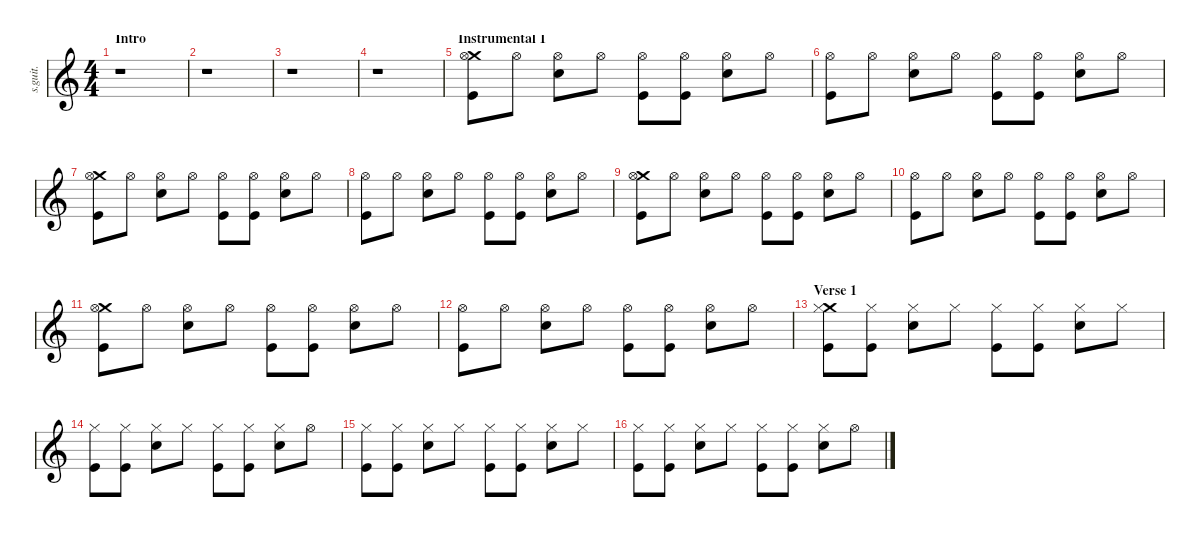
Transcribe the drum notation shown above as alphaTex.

\defaultSystemsLayout 4
\hideDynamics
\bracketExtendMode nobrackets
\track ("Will Champion" "s.guit.") {instrument percussion}
\staff {score}
\articulation defaults
\ts (4 4)
\beaming (8 2 2 2 2)
\section ("" "Intro")
\tempo (87 hide)
\clef g2
\ks c
r.1{dy mf} |
r.1 |
r.1 |
r.1 |
\section ("" "Instrumental 1")
("Crash medium (hit)" "Kick (hit)" "Hi-Hat (open)").8{lyrics (0 "") lyrics (1 "") lyrics (2 "") lyrics (3 "") lyrics (4 "")} "Hi-Hat (open)".8{lyrics (0 "") lyrics (1 "") lyrics (2 "") lyrics (3 "") lyrics (4 "")} ("Snare (hit) 2" "Hi-Hat (open)").8{lyrics (0 "") lyrics (1 "") lyrics (2 "") lyrics (3 "") lyrics (4 "")} "Hi-Hat (open)".8{lyrics (0 "") lyrics (1 "") lyrics (2 "") lyrics (3 "") lyrics (4 "")} ("Kick (hit)" "Hi-Hat (open)").8{lyrics (0 "") lyrics (1 "") lyrics (2 "") lyrics (3 "") lyrics (4 "")} ("Kick (hit)" "Hi-Hat (open)").8{lyrics (0 "") lyrics (1 "") lyrics (2 "") lyrics (3 "") lyrics (4 "")} ("Snare (hit) 2" "Hi-Hat (open)").8{lyrics (0 "") lyrics (1 "") lyrics (2 "") lyrics (3 "") lyrics (4 "")} "Hi-Hat (open)".8{lyrics (0 "") lyrics (1 "") lyrics (2 "") lyrics (3 "") lyrics (4 "")} |
("Kick (hit)" "Hi-Hat (open)").8{lyrics (0 "") lyrics (1 "") lyrics (2 "") lyrics (3 "") lyrics (4 "")} "Hi-Hat (open)".8{lyrics (0 "") lyrics (1 "") lyrics (2 "") lyrics (3 "") lyrics (4 "")} ("Snare (hit) 2" "Hi-Hat (open)").8{lyrics (0 "") lyrics (1 "") lyrics (2 "") lyrics (3 "") lyrics (4 "")} "Hi-Hat (open)".8{lyrics (0 "") lyrics (1 "") lyrics (2 "") lyrics (3 "") lyrics (4 "")} ("Kick (hit)" "Hi-Hat (open)").8{lyrics (0 "") lyrics (1 "") lyrics (2 "") lyrics (3 "") lyrics (4 "")} ("Kick (hit)" "Hi-Hat (open)").8{lyrics (0 "") lyrics (1 "") lyrics (2 "") lyrics (3 "") lyrics (4 "")} ("Snare (hit) 2" "Hi-Hat (open)").8{lyrics (0 "") lyrics (1 "") lyrics (2 "") lyrics (3 "") lyrics (4 "")} "Hi-Hat (open)".8{lyrics (0 "") lyrics (1 "") lyrics (2 "") lyrics (3 "") lyrics (4 "")} |
("Crash medium (hit)" "Kick (hit)" "Hi-Hat (open)").8{lyrics (0 "") lyrics (1 "") lyrics (2 "") lyrics (3 "") lyrics (4 "")} "Hi-Hat (open)".8{lyrics (0 "") lyrics (1 "") lyrics (2 "") lyrics (3 "") lyrics (4 "")} ("Snare (hit) 2" "Hi-Hat (open)").8{lyrics (0 "") lyrics (1 "") lyrics (2 "") lyrics (3 "") lyrics (4 "")} "Hi-Hat (open)".8{lyrics (0 "") lyrics (1 "") lyrics (2 "") lyrics (3 "") lyrics (4 "")} ("Kick (hit)" "Hi-Hat (open)").8{lyrics (0 "") lyrics (1 "") lyrics (2 "") lyrics (3 "") lyrics (4 "")} ("Kick (hit)" "Hi-Hat (open)").8{lyrics (0 "") lyrics (1 "") lyrics (2 "") lyrics (3 "") lyrics (4 "")} ("Snare (hit) 2" "Hi-Hat (open)").8{lyrics (0 "") lyrics (1 "") lyrics (2 "") lyrics (3 "") lyrics (4 "")} "Hi-Hat (open)".8{lyrics (0 "") lyrics (1 "") lyrics (2 "") lyrics (3 "") lyrics (4 "")} |
("Kick (hit)" "Hi-Hat (open)").8{lyrics (0 "") lyrics (1 "") lyrics (2 "") lyrics (3 "") lyrics (4 "")} "Hi-Hat (open)".8{lyrics (0 "") lyrics (1 "") lyrics (2 "") lyrics (3 "") lyrics (4 "")} ("Snare (hit) 2" "Hi-Hat (open)").8{lyrics (0 "") lyrics (1 "") lyrics (2 "") lyrics (3 "") lyrics (4 "")} "Hi-Hat (open)".8{lyrics (0 "") lyrics (1 "") lyrics (2 "") lyrics (3 "") lyrics (4 "")} ("Kick (hit)" "Hi-Hat (open)").8{lyrics (0 "") lyrics (1 "") lyrics (2 "") lyrics (3 "") lyrics (4 "")} ("Kick (hit)" "Hi-Hat (open)").8{lyrics (0 "") lyrics (1 "") lyrics (2 "") lyrics (3 "") lyrics (4 "")} ("Snare (hit) 2" "Hi-Hat (open)").8{lyrics (0 "") lyrics (1 "") lyrics (2 "") lyrics (3 "") lyrics (4 "")} "Hi-Hat (open)".8{lyrics (0 "") lyrics (1 "") lyrics (2 "") lyrics (3 "") lyrics (4 "")} |
("Crash medium (hit)" "Kick (hit)" "Hi-Hat (open)").8{lyrics (0 "") lyrics (1 "") lyrics (2 "") lyrics (3 "") lyrics (4 "")} "Hi-Hat (open)".8{lyrics (0 "") lyrics (1 "") lyrics (2 "") lyrics (3 "") lyrics (4 "")} ("Snare (hit) 2" "Hi-Hat (open)").8{lyrics (0 "") lyrics (1 "") lyrics (2 "") lyrics (3 "") lyrics (4 "")} "Hi-Hat (open)".8{lyrics (0 "") lyrics (1 "") lyrics (2 "") lyrics (3 "") lyrics (4 "")} ("Kick (hit)" "Hi-Hat (open)").8{lyrics (0 "") lyrics (1 "") lyrics (2 "") lyrics (3 "") lyrics (4 "")} ("Kick (hit)" "Hi-Hat (open)").8{lyrics (0 "") lyrics (1 "") lyrics (2 "") lyrics (3 "") lyrics (4 "")} ("Snare (hit) 2" "Hi-Hat (open)").8{lyrics (0 "") lyrics (1 "") lyrics (2 "") lyrics (3 "") lyrics (4 "")} "Hi-Hat (open)".8{lyrics (0 "") lyrics (1 "") lyrics (2 "") lyrics (3 "") lyrics (4 "")} |
("Kick (hit)" "Hi-Hat (open)").8{lyrics (0 "") lyrics (1 "") lyrics (2 "") lyrics (3 "") lyrics (4 "")} "Hi-Hat (open)".8{lyrics (0 "") lyrics (1 "") lyrics (2 "") lyrics (3 "") lyrics (4 "")} ("Snare (hit) 2" "Hi-Hat (open)").8{lyrics (0 "") lyrics (1 "") lyrics (2 "") lyrics (3 "") lyrics (4 "")} "Hi-Hat (open)".8{lyrics (0 "") lyrics (1 "") lyrics (2 "") lyrics (3 "") lyrics (4 "")} ("Kick (hit)" "Hi-Hat (open)").8{lyrics (0 "") lyrics (1 "") lyrics (2 "") lyrics (3 "") lyrics (4 "")} ("Kick (hit)" "Hi-Hat (open)").8{lyrics (0 "") lyrics (1 "") lyrics (2 "") lyrics (3 "") lyrics (4 "")} ("Snare (hit) 2" "Hi-Hat (open)").8{lyrics (0 "") lyrics (1 "") lyrics (2 "") lyrics (3 "") lyrics (4 "")} "Hi-Hat (open)".8{lyrics (0 "") lyrics (1 "") lyrics (2 "") lyrics (3 "") lyrics (4 "")} |
("Crash medium (hit)" "Kick (hit)" "Hi-Hat (open)").8{lyrics (0 "") lyrics (1 "") lyrics (2 "") lyrics (3 "") lyrics (4 "")} "Hi-Hat (open)".8{lyrics (0 "") lyrics (1 "") lyrics (2 "") lyrics (3 "") lyrics (4 "")} ("Snare (hit) 2" "Hi-Hat (open)").8{lyrics (0 "") lyrics (1 "") lyrics (2 "") lyrics (3 "") lyrics (4 "")} "Hi-Hat (open)".8{lyrics (0 "") lyrics (1 "") lyrics (2 "") lyrics (3 "") lyrics (4 "")} ("Kick (hit)" "Hi-Hat (open)").8{lyrics (0 "") lyrics (1 "") lyrics (2 "") lyrics (3 "") lyrics (4 "")} ("Kick (hit)" "Hi-Hat (open)").8{lyrics (0 "") lyrics (1 "") lyrics (2 "") lyrics (3 "") lyrics (4 "")} ("Snare (hit) 2" "Hi-Hat (open)").8{lyrics (0 "") lyrics (1 "") lyrics (2 "") lyrics (3 "") lyrics (4 "")} "Hi-Hat (open)".8{lyrics (0 "") lyrics (1 "") lyrics (2 "") lyrics (3 "") lyrics (4 "")} |
("Kick (hit)" "Hi-Hat (open)").8{lyrics (0 "") lyrics (1 "") lyrics (2 "") lyrics (3 "") lyrics (4 "")} "Hi-Hat (open)".8{lyrics (0 "") lyrics (1 "") lyrics (2 "") lyrics (3 "") lyrics (4 "")} ("Snare (hit) 2" "Hi-Hat (open)").8{lyrics (0 "") lyrics (1 "") lyrics (2 "") lyrics (3 "") lyrics (4 "")} "Hi-Hat (open)".8{lyrics (0 "") lyrics (1 "") lyrics (2 "") lyrics (3 "") lyrics (4 "")} ("Kick (hit)" "Hi-Hat (open)").8{lyrics (0 "") lyrics (1 "") lyrics (2 "") lyrics (3 "") lyrics (4 "")} ("Kick (hit)" "Hi-Hat (open)").8{lyrics (0 "") lyrics (1 "") lyrics (2 "") lyrics (3 "") lyrics (4 "")} ("Snare (hit) 2" "Hi-Hat (open)").8{lyrics (0 "") lyrics (1 "") lyrics (2 "") lyrics (3 "") lyrics (4 "")} "Hi-Hat (open)".8{lyrics (0 "") lyrics (1 "") lyrics (2 "") lyrics (3 "") lyrics (4 "")} |
\section ("" "Verse 1")
("Crash medium (hit)" "Hi-Hat (closed)" "Kick (hit)").8{lyrics (0 "") lyrics (1 "") lyrics (2 "") lyrics (3 "") lyrics (4 "")} ("Hi-Hat (closed)" "Kick (hit)").8{lyrics (0 "") lyrics (1 "") lyrics (2 "") lyrics (3 "") lyrics (4 "")} ("Hi-Hat (closed)" "Snare (hit) 2").8{lyrics (0 "") lyrics (1 "") lyrics (2 "") lyrics (3 "") lyrics (4 "")} "Hi-Hat (closed)".8{lyrics (0 "") lyrics (1 "") lyrics (2 "") lyrics (3 "") lyrics (4 "")} ("Hi-Hat (closed)" "Kick (hit)").8{lyrics (0 "") lyrics (1 "") lyrics (2 "") lyrics (3 "") lyrics (4 "")} ("Hi-Hat (closed)" "Kick (hit)").8{lyrics (0 "") lyrics (1 "") lyrics (2 "") lyrics (3 "") lyrics (4 "")} ("Hi-Hat (closed)" "Snare (hit) 2").8{lyrics (0 "") lyrics (1 "") lyrics (2 "") lyrics (3 "") lyrics (4 "")} "Hi-Hat (closed)".8{lyrics (0 "") lyrics (1 "") lyrics (2 "") lyrics (3 "") lyrics (4 "")} |
("Kick (hit)" "Hi-Hat (closed)").8{lyrics (0 "") lyrics (1 "") lyrics (2 "") lyrics (3 "") lyrics (4 "")} ("Kick (hit)" "Hi-Hat (closed)").8{lyrics (0 "") lyrics (1 "") lyrics (2 "") lyrics (3 "") lyrics (4 "")} ("Snare (hit) 2" "Hi-Hat (closed)").8{lyrics (0 "") lyrics (1 "") lyrics (2 "") lyrics (3 "") lyrics (4 "")} "Hi-Hat (closed)".8{lyrics (0 "") lyrics (1 "") lyrics (2 "") lyrics (3 "") lyrics (4 "")} ("Kick (hit)" "Hi-Hat (closed)").8{lyrics (0 "") lyrics (1 "") lyrics (2 "") lyrics (3 "") lyrics (4 "")} ("Kick (hit)" "Hi-Hat (closed)").8{lyrics (0 "") lyrics (1 "") lyrics (2 "") lyrics (3 "") lyrics (4 "")} ("Snare (hit) 2" "Hi-Hat (closed)").8{lyrics (0 "") lyrics (1 "") lyrics (2 "") lyrics (3 "") lyrics (4 "")} "Hi-Hat (open)".8{lyrics (0 "") lyrics (1 "") lyrics (2 "") lyrics (3 "") lyrics (4 "")} |
("Hi-Hat (closed)" "Kick (hit)").8{lyrics (0 "") lyrics (1 "") lyrics (2 "") lyrics (3 "") lyrics (4 "")} ("Hi-Hat (closed)" "Kick (hit)").8{lyrics (0 "") lyrics (1 "") lyrics (2 "") lyrics (3 "") lyrics (4 "")} ("Hi-Hat (closed)" "Snare (hit) 2").8{lyrics (0 "") lyrics (1 "") lyrics (2 "") lyrics (3 "") lyrics (4 "")} "Hi-Hat (closed)".8{lyrics (0 "") lyrics (1 "") lyrics (2 "") lyrics (3 "") lyrics (4 "")} ("Hi-Hat (closed)" "Kick (hit)").8{lyrics (0 "") lyrics (1 "") lyrics (2 "") lyrics (3 "") lyrics (4 "")} ("Hi-Hat (closed)" "Kick (hit)").8{lyrics (0 "") lyrics (1 "") lyrics (2 "") lyrics (3 "") lyrics (4 "")} ("Hi-Hat (closed)" "Snare (hit) 2").8{lyrics (0 "") lyrics (1 "") lyrics (2 "") lyrics (3 "") lyrics (4 "")} "Hi-Hat (closed)".8{lyrics (0 "") lyrics (1 "") lyrics (2 "") lyrics (3 "") lyrics (4 "")} |
("Kick (hit)" "Hi-Hat (closed)").8{lyrics (0 "") lyrics (1 "") lyrics (2 "") lyrics (3 "") lyrics (4 "")} ("Kick (hit)" "Hi-Hat (closed)").8{lyrics (0 "") lyrics (1 "") lyrics (2 "") lyrics (3 "") lyrics (4 "")} ("Snare (hit) 2" "Hi-Hat (closed)").8{lyrics (0 "") lyrics (1 "") lyrics (2 "") lyrics (3 "") lyrics (4 "")} "Hi-Hat (closed)".8{lyrics (0 "") lyrics (1 "") lyrics (2 "") lyrics (3 "") lyrics (4 "")} ("Kick (hit)" "Hi-Hat (closed)").8{lyrics (0 "") lyrics (1 "") lyrics (2 "") lyrics (3 "") lyrics (4 "")} ("Kick (hit)" "Hi-Hat (closed)").8{lyrics (0 "") lyrics (1 "") lyrics (2 "") lyrics (3 "") lyrics (4 "")} ("Snare (hit) 2" "Hi-Hat (closed)").8{lyrics (0 "") lyrics (1 "") lyrics (2 "") lyrics (3 "") lyrics (4 "")} "Hi-Hat (open)".8{lyrics (0 "") lyrics (1 "") lyrics (2 "") lyrics (3 "") lyrics (4 "")}
